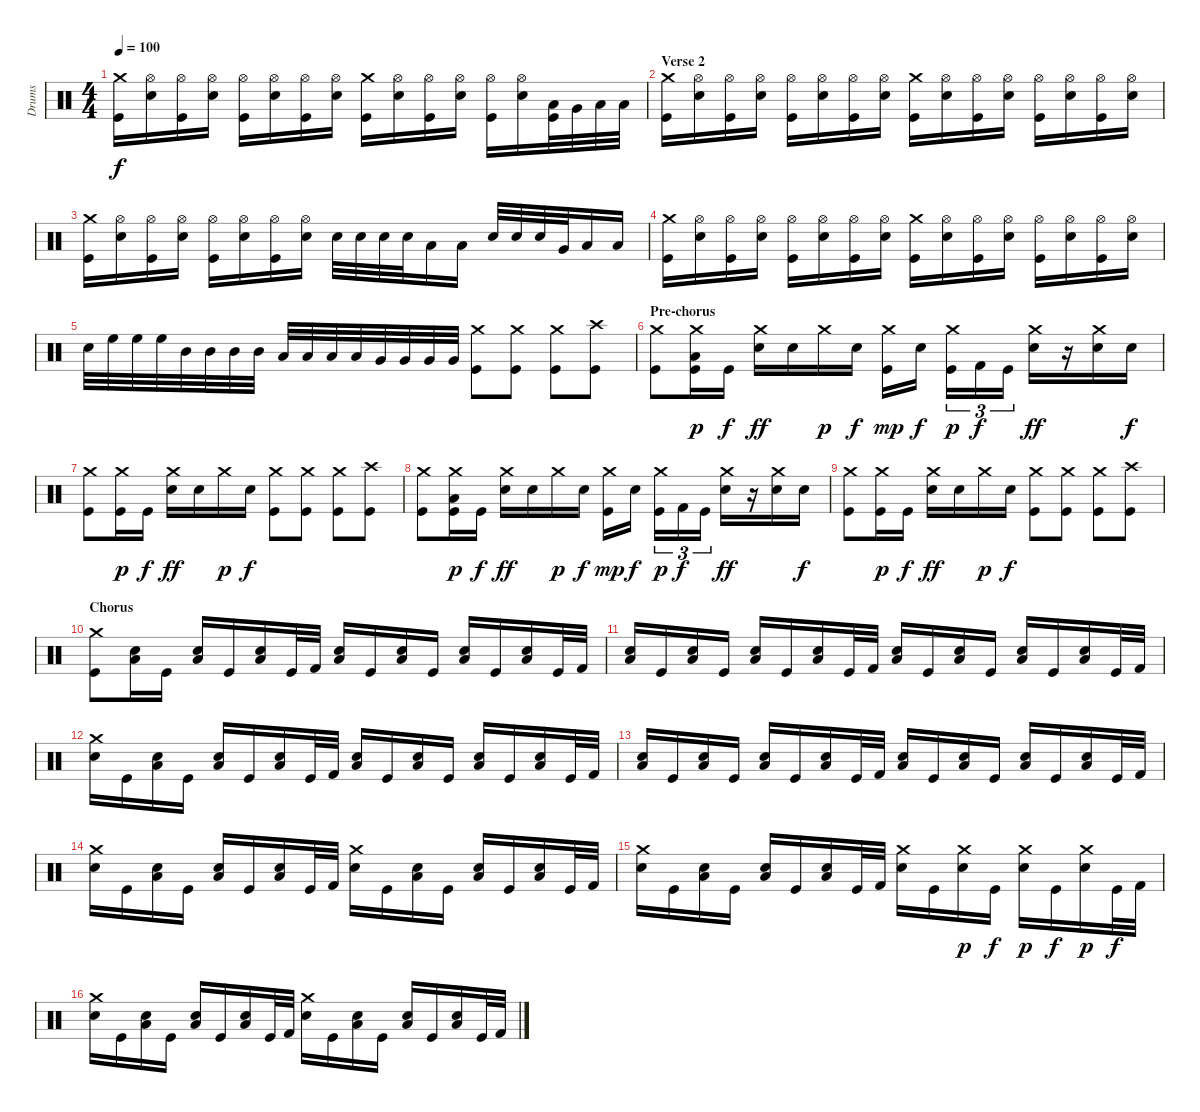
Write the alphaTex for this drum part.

\track ("Drums" "Drums") {instrument percussion}
\staff {score}
\articulation defaults
\ts (4 4)
\tempo 100
\clef neutral
\ks c
("Crash medium (hit)" "Kick (hit)").16{dy f} ("Hi-Hat (open)" "Electric Snare (hit)").16 ("Hi-Hat (open)" "Kick (hit)").16 ("Hi-Hat (open)" "Electric Snare (hit)").16 ("Hi-Hat (open)" "Kick (hit)").16 ("Hi-Hat (open)" "Electric Snare (hit)").16 ("Hi-Hat (open)" "Kick (hit)").16 ("Hi-Hat (open)" "Electric Snare (hit)").16 ("Crash medium (hit)" "Kick (hit)").16 ("Hi-Hat (open)" "Electric Snare (hit)").16 ("Hi-Hat (open)" "Kick (hit)").16 ("Hi-Hat (open)" "Electric Snare (hit)").16 ("Hi-Hat (open)" "Kick (hit)").16 ("Hi-Hat (open)" "Electric Snare (hit)").16 ("Low Tom (hit)" "Kick (hit)").32 "Very Low Tom (hit)".32 "Low Floor Tom (hit)".32 "Low Floor Tom (hit)".32 |
\section ("" "Verse 2")
("Crash medium (hit)" "Kick (hit)").16 ("Hi-Hat (open)" "Electric Snare (hit)").16 ("Hi-Hat (open)" "Kick (hit)").16 ("Hi-Hat (open)" "Electric Snare (hit)").16 ("Hi-Hat (open)" "Kick (hit)").16 ("Hi-Hat (open)" "Electric Snare (hit)").16 ("Hi-Hat (open)" "Kick (hit)").16 ("Hi-Hat (open)" "Electric Snare (hit)").16 ("Crash medium (hit)" "Kick (hit)").16 ("Hi-Hat (open)" "Electric Snare (hit)").16 ("Hi-Hat (open)" "Kick (hit)").16 ("Hi-Hat (open)" "Electric Snare (hit)").16 ("Hi-Hat (open)" "Kick (hit)").16 ("Hi-Hat (open)" "Electric Snare (hit)").16 ("Hi-Hat (open)" "Kick (hit)").16 ("Hi-Hat (open)" "Electric Snare (hit)").16 |
("Crash medium (hit)" "Kick (hit)").16 ("Hi-Hat (open)" "Electric Snare (hit)").16 ("Hi-Hat (open)" "Kick (hit)").16 ("Hi-Hat (open)" "Electric Snare (hit)").16 ("Hi-Hat (open)" "Kick (hit)").16 ("Hi-Hat (open)" "Electric Snare (hit)").16 ("Hi-Hat (open)" "Kick (hit)").16 ("Hi-Hat (open)" "Electric Snare (hit)").16 "Electric Snare (hit)".32 "Electric Snare (hit)".32 "Electric Snare (hit)".32 "Electric Snare (hit)".32 "Low Floor Tom (hit)".16 "Low Floor Tom (hit)".16 "Electric Snare (hit)".32 "Electric Snare (hit)".32 "Electric Snare (hit)".32 "Very Low Tom (hit)".32 "Low Floor Tom (hit)".16 "Low Floor Tom (hit)".16 |
("Crash medium (hit)" "Kick (hit)").16 ("Hi-Hat (open)" "Electric Snare (hit)").16 ("Hi-Hat (open)" "Kick (hit)").16 ("Hi-Hat (open)" "Electric Snare (hit)").16 ("Hi-Hat (open)" "Kick (hit)").16 ("Hi-Hat (open)" "Electric Snare (hit)").16 ("Hi-Hat (open)" "Kick (hit)").16 ("Hi-Hat (open)" "Electric Snare (hit)").16 ("Crash medium (hit)" "Kick (hit)").16 ("Hi-Hat (open)" "Electric Snare (hit)").16 ("Hi-Hat (open)" "Kick (hit)").16 ("Hi-Hat (open)" "Electric Snare (hit)").16 ("Hi-Hat (open)" "Kick (hit)").16 ("Hi-Hat (open)" "Electric Snare (hit)").16 ("Hi-Hat (open)" "Kick (hit)").16 ("Hi-Hat (open)" "Electric Snare (hit)").16 |
"Electric Snare (hit)".32 "High Floor Tom (hit)".32 "High Floor Tom (hit)".32 "High Floor Tom (hit)".32 "Mid Tom (hit)".32 "Mid Tom (hit)".32 "Mid Tom (hit)".32 "Mid Tom (hit)".32 "Low Tom (hit)".32 "Low Tom (hit)".32 "Low Tom (hit)".32 "Low Tom (hit)".32 "Very Low Tom (hit)".32 "Very Low Tom (hit)".32 "Very Low Tom (hit)".32 "Very Low Tom (hit)".32 ("Crash medium (hit)" "Kick (hit)").8 ("Crash medium (hit)" "Kick (hit)").8 ("Crash medium (hit)" "Kick (hit)").8 ("Crash high (hit)" "Kick (hit)").8 |
\section ("" "Pre-chorus")
("Crash medium (hit)" "Kick (hit)").8 ("Crash medium (hit)" "Low Tom (hit)" "Kick (hit)").16{dy p} "Kick (hit)".16{dy f} ("Crash medium (hit)" "Electric Snare (hit)").16{dy ff} "Electric Snare (hit)".16 "Crash medium (hit)".16{dy p} "Electric Snare (hit)".16{dy f} ("Crash medium (hit)" "Kick (hit)").16{dy mp} "Electric Snare (hit)".16{dy f} ("Crash medium (hit)" "Kick (hit)").16{tu (3 2) dy p} "Kick (hit) 2".16{tu (3 2) dy f} "Kick (hit)".16{tu (3 2)} ("Crash medium (hit)" "Electric Snare (hit)").16{dy ff} r.16 ("Crash medium (hit)" "Electric Snare (hit)").16 "Electric Snare (hit)".16{dy f} |
("Crash medium (hit)" "Kick (hit)").8 ("Crash medium (hit)" "Kick (hit)").16{dy p} "Kick (hit)".16{dy f} ("Crash medium (hit)" "Electric Snare (hit)").16{dy ff} "Electric Snare (hit)".16 "Crash medium (hit)".16{dy p} "Electric Snare (hit)".16{dy f} ("Crash medium (hit)" "Kick (hit)").8 ("Crash medium (hit)" "Kick (hit)").8 ("Crash medium (hit)" "Kick (hit)").8 ("Crash high (hit)" "Kick (hit)").8 |
("Crash medium (hit)" "Kick (hit)").8 ("Crash medium (hit)" "Low Tom (hit)" "Kick (hit)").16{dy p} "Kick (hit)".16{dy f} ("Crash medium (hit)" "Electric Snare (hit)").16{dy ff} "Electric Snare (hit)".16 "Crash medium (hit)".16{dy p} "Electric Snare (hit)".16{dy f} ("Crash medium (hit)" "Kick (hit)").16{dy mp} "Electric Snare (hit)".16{dy f} ("Crash medium (hit)" "Kick (hit)").16{tu (3 2) dy p} "Kick (hit) 2".16{tu (3 2) dy f} "Kick (hit)".16{tu (3 2)} ("Crash medium (hit)" "Electric Snare (hit)").16{dy ff} r.16 ("Crash medium (hit)" "Electric Snare (hit)").16 "Electric Snare (hit)".16{dy f} |
("Crash medium (hit)" "Kick (hit)").8 ("Crash medium (hit)" "Kick (hit)").16{dy p} "Kick (hit)".16{dy f} ("Crash medium (hit)" "Electric Snare (hit)").16{dy ff} "Electric Snare (hit)".16 "Crash medium (hit)".16{dy p} "Electric Snare (hit)".16{dy f} ("Crash medium (hit)" "Kick (hit)").8 ("Crash medium (hit)" "Kick (hit)").8 ("Crash medium (hit)" "Kick (hit)").8 ("Crash high (hit)" "Kick (hit)").8 |
\section ("" "Chorus")
("Crash medium (hit)" "Kick (hit)").8 ("Electric Snare (hit)" "Low Tom (hit)").16 "Kick (hit)".16 ("Electric Snare (hit)" "Low Tom (hit)").16 "Kick (hit)".16 ("Electric Snare (hit)" "Low Tom (hit)").16 "Kick (hit)".32 "Kick (hit) 2".32 ("Electric Snare (hit)" "Low Tom (hit)").16 "Kick (hit)".16 ("Electric Snare (hit)" "Low Tom (hit)").16 "Kick (hit)".16 ("Electric Snare (hit)" "Low Tom (hit)").16 "Kick (hit)".16 ("Electric Snare (hit)" "Low Tom (hit)").16 "Kick (hit)".32 "Kick (hit) 2".32 |
("Electric Snare (hit)" "Low Tom (hit)").16 "Kick (hit)".16 ("Electric Snare (hit)" "Low Tom (hit)").16 "Kick (hit)".16 ("Electric Snare (hit)" "Low Tom (hit)").16 "Kick (hit)".16 ("Electric Snare (hit)" "Low Tom (hit)").16 "Kick (hit)".32 "Kick (hit) 2".32 ("Electric Snare (hit)" "Low Tom (hit)").16 "Kick (hit)".16 ("Electric Snare (hit)" "Low Tom (hit)").16 "Kick (hit)".16 ("Electric Snare (hit)" "Low Tom (hit)").16 "Kick (hit)".16 ("Electric Snare (hit)" "Low Tom (hit)").16 "Kick (hit)".32 "Kick (hit) 2".32 |
("Crash medium (hit)" "Electric Snare (hit)").16 "Kick (hit)".16 ("Electric Snare (hit)" "Low Tom (hit)").16 "Kick (hit)".16 ("Electric Snare (hit)" "Low Tom (hit)").16 "Kick (hit)".16 ("Electric Snare (hit)" "Low Tom (hit)").16 "Kick (hit)".32 "Kick (hit) 2".32 ("Electric Snare (hit)" "Low Tom (hit)").16 "Kick (hit)".16 ("Electric Snare (hit)" "Low Tom (hit)").16 "Kick (hit)".16 ("Electric Snare (hit)" "Low Tom (hit)").16 "Kick (hit)".16 ("Electric Snare (hit)" "Low Tom (hit)").16 "Kick (hit)".32 "Kick (hit) 2".32 |
("Electric Snare (hit)" "Low Tom (hit)").16 "Kick (hit)".16 ("Electric Snare (hit)" "Low Tom (hit)").16 "Kick (hit)".16 ("Electric Snare (hit)" "Low Tom (hit)").16 "Kick (hit)".16 ("Electric Snare (hit)" "Low Tom (hit)").16 "Kick (hit)".32 "Kick (hit) 2".32 ("Electric Snare (hit)" "Low Tom (hit)").16 "Kick (hit)".16 ("Electric Snare (hit)" "Low Tom (hit)").16 "Kick (hit)".16 ("Electric Snare (hit)" "Low Tom (hit)").16 "Kick (hit)".16 ("Electric Snare (hit)" "Low Tom (hit)").16 "Kick (hit)".32 "Kick (hit) 2".32 |
("Crash medium (hit)" "Electric Snare (hit)").16 "Kick (hit)".16 ("Electric Snare (hit)" "Low Tom (hit)").16 "Kick (hit)".16 ("Electric Snare (hit)" "Low Tom (hit)").16 "Kick (hit)".16 ("Electric Snare (hit)" "Low Tom (hit)").16 "Kick (hit)".32 "Kick (hit) 2".32 ("Crash medium (hit)" "Electric Snare (hit)").16 "Kick (hit)".16 ("Electric Snare (hit)" "Low Tom (hit)").16 "Kick (hit)".16 ("Electric Snare (hit)" "Low Tom (hit)").16 "Kick (hit)".16 ("Electric Snare (hit)" "Low Tom (hit)").16 "Kick (hit)".32 "Kick (hit) 2".32 |
("Crash medium (hit)" "Electric Snare (hit)").16 "Kick (hit)".16 ("Electric Snare (hit)" "Low Tom (hit)").16 "Kick (hit)".16 ("Electric Snare (hit)" "Low Tom (hit)").16 "Kick (hit)".16 ("Electric Snare (hit)" "Low Tom (hit)").16 "Kick (hit)".32 "Kick (hit) 2".32 ("Crash medium (hit)" "Electric Snare (hit)").16 "Kick (hit)".16 ("Crash medium (hit)" "Electric Snare (hit)").16{dy p} "Kick (hit)".16{dy f} ("Crash medium (hit)" "Electric Snare (hit)").16{dy p} "Kick (hit)".16{dy f} ("Crash medium (hit)" "Electric Snare (hit)").16{dy p} "Kick (hit)".32{dy f} "Kick (hit) 2".32 |
("Crash medium (hit)" "Electric Snare (hit)").16 "Kick (hit)".16 ("Electric Snare (hit)" "Low Tom (hit)").16 "Kick (hit)".16 ("Electric Snare (hit)" "Low Tom (hit)").16 "Kick (hit)".16 ("Electric Snare (hit)" "Low Tom (hit)").16 "Kick (hit)".32 "Kick (hit) 2".32 ("Crash medium (hit)" "Electric Snare (hit)").16 "Kick (hit)".16 ("Electric Snare (hit)" "Low Tom (hit)").16 "Kick (hit)".16 ("Electric Snare (hit)" "Low Tom (hit)").16 "Kick (hit)".16 ("Electric Snare (hit)" "Low Tom (hit)").16 "Kick (hit)".32 "Kick (hit) 2".32
